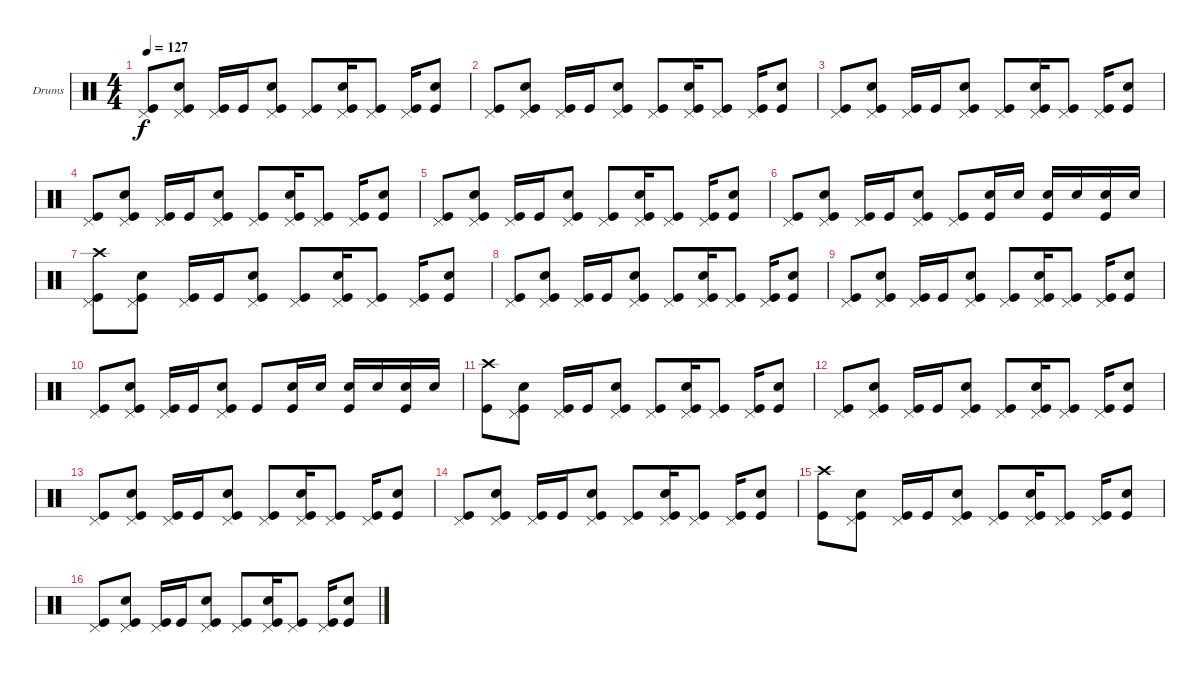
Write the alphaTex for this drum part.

\bracketExtendMode groupsimilarinstruments
\firstSystemTrackNameOrientation horizontal
\otherSystemsTrackNameOrientation horizontal
\track ("Drumkit" "Drums") {instrument percussion}
\staff {score}
\articulation defaults
\ts (4 4)
\tempo 127
\clef neutral
\ks c
("Pedal Hi-Hat (hit)" "Kick (hit)").8{dy f} ("Pedal Hi-Hat (hit)" "Snare (hit) 2" "Kick (hit)").8 ("Pedal Hi-Hat (hit)" "Kick (hit)").16 "Kick (hit)".16 ("Pedal Hi-Hat (hit)" "Snare (hit) 2" "Kick (hit)").8 ("Pedal Hi-Hat (hit)" "Kick (hit)").8 ("Pedal Hi-Hat (hit)" "Snare (hit) 2" "Kick (hit)").16 ("Pedal Hi-Hat (hit)" "Kick (hit)").8 ("Pedal Hi-Hat (hit)" "Kick (hit)").16 ("Snare (hit) 2" "Kick (hit)").8 |
("Pedal Hi-Hat (hit)" "Kick (hit)").8 ("Pedal Hi-Hat (hit)" "Snare (hit) 2" "Kick (hit)").8 ("Pedal Hi-Hat (hit)" "Kick (hit)").16 "Kick (hit)".16 ("Pedal Hi-Hat (hit)" "Snare (hit) 2" "Kick (hit)").8 ("Pedal Hi-Hat (hit)" "Kick (hit)").8 ("Pedal Hi-Hat (hit)" "Snare (hit) 2" "Kick (hit)").16 ("Pedal Hi-Hat (hit)" "Kick (hit)").8 ("Pedal Hi-Hat (hit)" "Kick (hit)").16 ("Snare (hit) 2" "Kick (hit)").8 |
("Pedal Hi-Hat (hit)" "Kick (hit)").8 ("Pedal Hi-Hat (hit)" "Snare (hit) 2" "Kick (hit)").8 ("Pedal Hi-Hat (hit)" "Kick (hit)").16 "Kick (hit)".16 ("Pedal Hi-Hat (hit)" "Snare (hit) 2" "Kick (hit)").8 ("Pedal Hi-Hat (hit)" "Kick (hit)").8 ("Pedal Hi-Hat (hit)" "Snare (hit) 2" "Kick (hit)").16 ("Pedal Hi-Hat (hit)" "Kick (hit)").8 ("Pedal Hi-Hat (hit)" "Kick (hit)").16 ("Snare (hit) 2" "Kick (hit)").8 |
("Pedal Hi-Hat (hit)" "Kick (hit)").8 ("Pedal Hi-Hat (hit)" "Snare (hit) 2" "Kick (hit)").8 ("Pedal Hi-Hat (hit)" "Kick (hit)").16 "Kick (hit)".16 ("Pedal Hi-Hat (hit)" "Snare (hit) 2" "Kick (hit)").8 ("Pedal Hi-Hat (hit)" "Kick (hit)").8 ("Pedal Hi-Hat (hit)" "Snare (hit) 2" "Kick (hit)").16 ("Pedal Hi-Hat (hit)" "Kick (hit)").8 ("Pedal Hi-Hat (hit)" "Kick (hit)").16 ("Snare (hit) 2" "Kick (hit)").8 |
("Pedal Hi-Hat (hit)" "Kick (hit)").8 ("Pedal Hi-Hat (hit)" "Snare (hit) 2" "Kick (hit)").8 ("Pedal Hi-Hat (hit)" "Kick (hit)").16 "Kick (hit)".16 ("Pedal Hi-Hat (hit)" "Snare (hit) 2" "Kick (hit)").8 ("Pedal Hi-Hat (hit)" "Kick (hit)").8 ("Pedal Hi-Hat (hit)" "Snare (hit) 2" "Kick (hit)").16 ("Pedal Hi-Hat (hit)" "Kick (hit)").8 ("Pedal Hi-Hat (hit)" "Kick (hit)").16 ("Snare (hit) 2" "Kick (hit)").8 |
("Pedal Hi-Hat (hit)" "Kick (hit)").8 ("Pedal Hi-Hat (hit)" "Snare (hit) 2" "Kick (hit)").8 ("Pedal Hi-Hat (hit)" "Kick (hit)").16 "Kick (hit)".16 ("Pedal Hi-Hat (hit)" "Snare (hit) 2" "Kick (hit)").8 ("Pedal Hi-Hat (hit)" "Kick (hit)").8 ("Snare (hit) 2" "Kick (hit)").16 "Snare (hit) 2".16 ("Snare (hit) 2" "Kick (hit)").16 "Snare (hit) 2".16 ("Snare (hit) 2" "Kick (hit)").16 "Snare (hit) 2".16 |
("Pedal Hi-Hat (hit)" "Crash high (hit)" "Kick (hit)").8 ("Pedal Hi-Hat (hit)" "Snare (hit) 2" "Kick (hit)").8 ("Pedal Hi-Hat (hit)" "Kick (hit)").16 "Kick (hit)".16 ("Pedal Hi-Hat (hit)" "Snare (hit) 2" "Kick (hit)").8 ("Pedal Hi-Hat (hit)" "Kick (hit)").8 ("Pedal Hi-Hat (hit)" "Snare (hit) 2" "Kick (hit)").16 ("Pedal Hi-Hat (hit)" "Kick (hit)").8 ("Pedal Hi-Hat (hit)" "Kick (hit)").16 ("Snare (hit) 2" "Kick (hit)").8 |
("Pedal Hi-Hat (hit)" "Kick (hit)").8 ("Pedal Hi-Hat (hit)" "Snare (hit) 2" "Kick (hit)").8 ("Pedal Hi-Hat (hit)" "Kick (hit)").16 "Kick (hit)".16 ("Pedal Hi-Hat (hit)" "Snare (hit) 2" "Kick (hit)").8 ("Pedal Hi-Hat (hit)" "Kick (hit)").8 ("Pedal Hi-Hat (hit)" "Snare (hit) 2" "Kick (hit)").16 ("Pedal Hi-Hat (hit)" "Kick (hit)").8 ("Pedal Hi-Hat (hit)" "Kick (hit)").16 ("Snare (hit) 2" "Kick (hit)").8 |
("Pedal Hi-Hat (hit)" "Kick (hit)").8 ("Pedal Hi-Hat (hit)" "Snare (hit) 2" "Kick (hit)").8 ("Pedal Hi-Hat (hit)" "Kick (hit)").16 "Kick (hit)".16 ("Pedal Hi-Hat (hit)" "Snare (hit) 2" "Kick (hit)").8 ("Pedal Hi-Hat (hit)" "Kick (hit)").8 ("Pedal Hi-Hat (hit)" "Snare (hit) 2" "Kick (hit)").16 ("Pedal Hi-Hat (hit)" "Kick (hit)").8 ("Pedal Hi-Hat (hit)" "Kick (hit)").16 ("Snare (hit) 2" "Kick (hit)").8 |
("Pedal Hi-Hat (hit)" "Kick (hit)").8 ("Pedal Hi-Hat (hit)" "Snare (hit) 2" "Kick (hit)").8 ("Pedal Hi-Hat (hit)" "Kick (hit)").16 "Kick (hit)".16 ("Pedal Hi-Hat (hit)" "Snare (hit) 2" "Kick (hit)").8 "Kick (hit)".8 ("Snare (hit) 2" "Kick (hit)").16 "Snare (hit) 2".16 ("Snare (hit) 2" "Kick (hit)").16 "Snare (hit) 2".16 ("Snare (hit) 2" "Kick (hit)").16 "Snare (hit) 2".16 |
("Crash high (hit)" "Kick (hit)").8 ("Pedal Hi-Hat (hit)" "Snare (hit) 2" "Kick (hit)").8 ("Pedal Hi-Hat (hit)" "Kick (hit)").16 "Kick (hit)".16 ("Pedal Hi-Hat (hit)" "Snare (hit) 2" "Kick (hit)").8 ("Pedal Hi-Hat (hit)" "Kick (hit)").8 ("Pedal Hi-Hat (hit)" "Snare (hit) 2" "Kick (hit)").16 ("Pedal Hi-Hat (hit)" "Kick (hit)").8 ("Pedal Hi-Hat (hit)" "Kick (hit)").16 ("Snare (hit) 2" "Kick (hit)").8 |
("Pedal Hi-Hat (hit)" "Kick (hit)").8 ("Pedal Hi-Hat (hit)" "Snare (hit) 2" "Kick (hit)").8 ("Pedal Hi-Hat (hit)" "Kick (hit)").16 "Kick (hit)".16 ("Pedal Hi-Hat (hit)" "Snare (hit) 2" "Kick (hit)").8 ("Pedal Hi-Hat (hit)" "Kick (hit)").8 ("Pedal Hi-Hat (hit)" "Snare (hit) 2" "Kick (hit)").16 ("Pedal Hi-Hat (hit)" "Kick (hit)").8 ("Pedal Hi-Hat (hit)" "Kick (hit)").16 ("Snare (hit) 2" "Kick (hit)").8 |
("Pedal Hi-Hat (hit)" "Kick (hit)").8 ("Pedal Hi-Hat (hit)" "Snare (hit) 2" "Kick (hit)").8 ("Pedal Hi-Hat (hit)" "Kick (hit)").16 "Kick (hit)".16 ("Pedal Hi-Hat (hit)" "Snare (hit) 2" "Kick (hit)").8 ("Pedal Hi-Hat (hit)" "Kick (hit)").8 ("Pedal Hi-Hat (hit)" "Snare (hit) 2" "Kick (hit)").16 ("Pedal Hi-Hat (hit)" "Kick (hit)").8 ("Pedal Hi-Hat (hit)" "Kick (hit)").16 ("Snare (hit) 2" "Kick (hit)").8 |
("Pedal Hi-Hat (hit)" "Kick (hit)").8 ("Pedal Hi-Hat (hit)" "Snare (hit) 2" "Kick (hit)").8 ("Pedal Hi-Hat (hit)" "Kick (hit)").16 "Kick (hit)".16 ("Pedal Hi-Hat (hit)" "Snare (hit) 2" "Kick (hit)").8 ("Pedal Hi-Hat (hit)" "Kick (hit)").8 ("Pedal Hi-Hat (hit)" "Snare (hit) 2" "Kick (hit)").16 ("Pedal Hi-Hat (hit)" "Kick (hit)").8 ("Pedal Hi-Hat (hit)" "Kick (hit)").16 ("Snare (hit) 2" "Kick (hit)").8 |
("Crash high (hit)" "Kick (hit)").8 ("Pedal Hi-Hat (hit)" "Snare (hit) 2" "Kick (hit)").8 ("Pedal Hi-Hat (hit)" "Kick (hit)").16 "Kick (hit)".16 ("Pedal Hi-Hat (hit)" "Snare (hit) 2" "Kick (hit)").8 ("Pedal Hi-Hat (hit)" "Kick (hit)").8 ("Pedal Hi-Hat (hit)" "Snare (hit) 2" "Kick (hit)").16 ("Pedal Hi-Hat (hit)" "Kick (hit)").8 ("Pedal Hi-Hat (hit)" "Kick (hit)").16 ("Snare (hit) 2" "Kick (hit)").8 |
("Pedal Hi-Hat (hit)" "Kick (hit)").8 ("Pedal Hi-Hat (hit)" "Snare (hit) 2" "Kick (hit)").8 ("Pedal Hi-Hat (hit)" "Kick (hit)").16 "Kick (hit)".16 ("Pedal Hi-Hat (hit)" "Snare (hit) 2" "Kick (hit)").8 ("Pedal Hi-Hat (hit)" "Kick (hit)").8 ("Pedal Hi-Hat (hit)" "Snare (hit) 2" "Kick (hit)").16 ("Pedal Hi-Hat (hit)" "Kick (hit)").8 ("Pedal Hi-Hat (hit)" "Kick (hit)").16 ("Snare (hit) 2" "Kick (hit)").8
